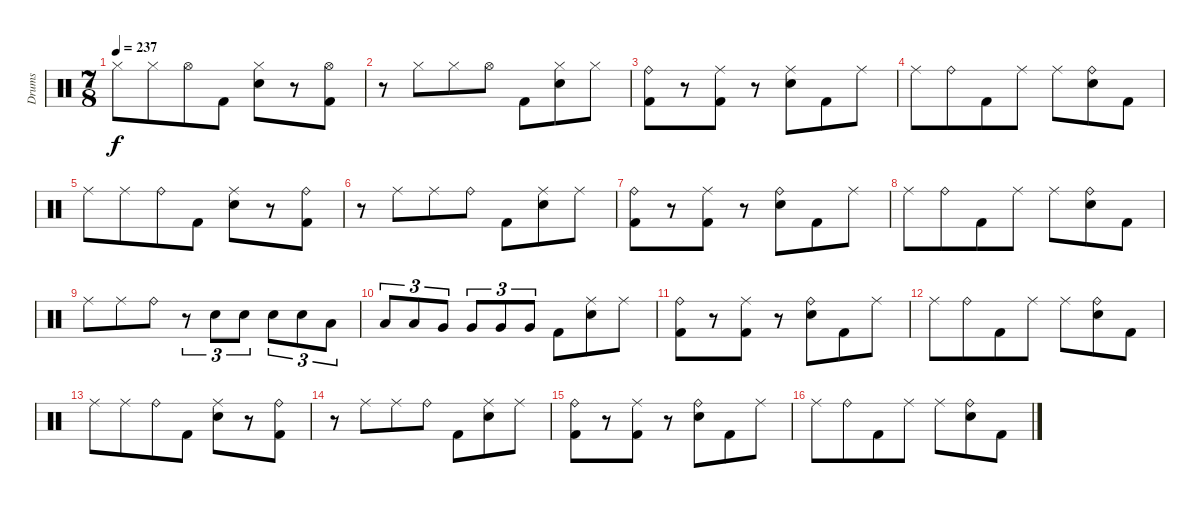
\track ("Drums" "Drums") {instrument percussion}
\staff {score}
\articulation defaults
\ts (7 8)
\tempo 237
\clef neutral
\ks c "Hi-Hat (closed)".8{dy f} "Hi-Hat (closed)".8 "Hi-Hat (open)".8 "Kick (hit) 2".8
("Hi-Hat (closed)" "Electric Snare (hit)").8 r.8 ("Hi-Hat (open)" "Kick (hit) 2").8 |
r.8 "Hi-Hat (closed)".8 "Hi-Hat (closed)".8 "Hi-Hat (open)".8 "Kick (hit) 2".8 ("Hi-Hat (closed)" "Electric Snare (hit)").8 "Hi-Hat (closed)".8 |
("Ride (bell)" "Kick (hit) 2").8 r.8 ("Ride (middle)" "Kick (hit) 2").8 r.8 ("Ride (middle)" "Electric Snare (hit)").8 "Kick (hit) 2".8 "Ride (middle)".8 |
"Ride (middle)".8 "Ride (bell)".8 "Kick (hit) 2".8 "Ride (middle)".8 "Ride (middle)".8 ("Ride (bell)" "Electric Snare (hit)").8 "Kick (hit) 2".8 |
"Ride (middle)".8 "Ride (middle)".8 "Ride (bell)".8 "Kick (hit) 2".8 ("Ride (middle)" "Electric Snare (hit)").8 r.8 ("Ride (bell)" "Kick (hit) 2").8 |
r.8 "Ride (middle)".8 "Ride (middle)".8 "Ride (bell)".8 "Kick (hit) 2".8 ("Ride (middle)" "Electric Snare (hit)").8 "Ride (middle)".8 |
("Ride (bell)" "Kick (hit) 2").8 r.8 ("Ride (middle)" "Kick (hit) 2").8 r.8 ("Ride (bell)" "Electric Snare (hit)").8 "Kick (hit) 2".8 "Ride (middle)".8 |
"Ride (middle)".8 "Ride (bell)".8 "Kick (hit) 2".8 "Ride (middle)".8 "Ride (middle)".8 ("Ride (bell)" "Electric Snare (hit)").8 "Kick (hit) 2".8 |
"Ride (middle)".8 "Ride (middle)".8 "Ride (bell)".8 r.8{tu (3 2)} "Electric Snare (hit)".8{tu (3 2)} "Electric Snare (hit)".8{tu (3 2)} "Electric Snare (hit)".8{tu (3 2)} "Electric Snare (hit)".8{tu (3 2)} "Low Tom (hit)".8{tu (3 2)} |
"Low Tom (hit)".8{tu (3 2)} "Low Tom (hit)".8{tu (3 2)} "Very Low Tom (hit)".8{tu (3 2)} "Very Low Tom (hit)".8{tu (3 2)} "Very Low Tom (hit)".8{tu (3 2)} "Very Low Tom (hit)".8{tu (3 2)} "Kick (hit) 2".8 ("Ride (middle)" "Electric Snare (hit)").8 "Ride (middle)".8 |
("Ride (bell)" "Kick (hit) 2").8 r.8 ("Ride (middle)" "Kick (hit) 2").8 r.8 ("Ride (bell)" "Electric Snare (hit)").8 "Kick (hit) 2".8 "Ride (middle)".8 |
"Ride (middle)".8 "Ride (bell)".8 "Kick (hit) 2".8 "Ride (middle)".8 "Ride (middle)".8 ("Ride (bell)" "Electric Snare (hit)").8 "Kick (hit) 2".8 |
"Ride (middle)".8 "Ride (middle)".8 "Ride (bell)".8 "Kick (hit) 2".8 ("Ride (middle)" "Electric Snare (hit)").8 r.8 ("Ride (bell)" "Kick (hit) 2").8 |
r.8 "Ride (middle)".8 "Ride (middle)".8 "Ride (bell)".8 "Kick (hit) 2".8 ("Ride (middle)" "Electric Snare (hit)").8 "Ride (middle)".8 |
("Ride (bell)" "Kick (hit) 2").8 r.8 ("Ride (middle)" "Kick (hit) 2").8 r.8 ("Ride (bell)" "Electric Snare (hit)").8 "Kick (hit) 2".8 "Ride (middle)".8 |
"Ride (middle)".8 "Ride (bell)".8 "Kick (hit) 2".8 "Ride (middle)".8 "Ride (middle)".8 ("Ride (bell)" "Electric Snare (hit)").8 "Kick (hit) 2".8
